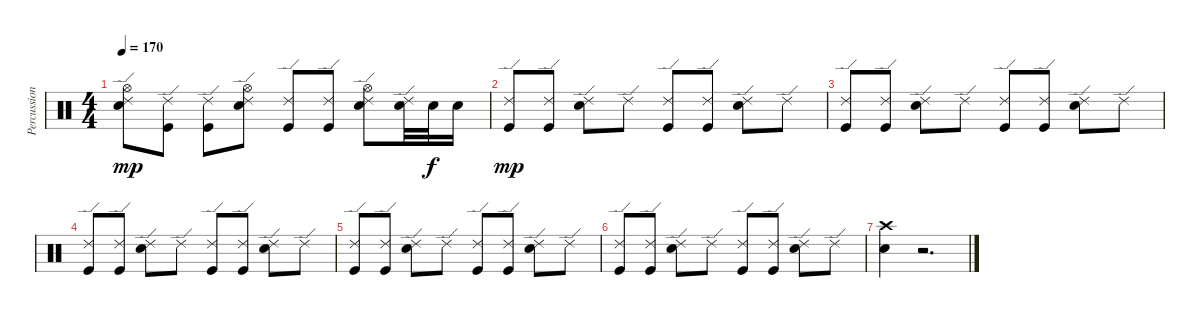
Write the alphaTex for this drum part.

\track ("Percussion" "Percussion") {instrument percussion}
\staff {score}
\articulation defaults
\ts (4 4)
\tempo 170
\clef neutral
\ks c
("Hi-Hat (open)" "Electric Snare (hit)" "Ride (edge) 2").8{dy mp} ("Kick (hit)" "Ride (edge) 2").8 ("Kick (hit)" "Ride (edge) 2").8 ("Hi-Hat (open)" "Electric Snare (hit)" "Ride (edge) 2").8 ("Kick (hit)" "Ride (edge) 2").8 ("Kick (hit)" "Ride (edge) 2").8 ("Hi-Hat (open)" "Electric Snare (hit)" "Ride (edge) 2").8 ("Electric Snare (hit)" "Ride (edge) 2").32 "Electric Snare (hit)".32{dy f} "Electric Snare (hit)".16 |
("Kick (hit)" "Ride (edge) 2").8{dy mp} ("Kick (hit)" "Ride (edge) 2").8 ("Electric Snare (hit)" "Ride (edge) 2").8 "Ride (edge) 2".8 ("Kick (hit)" "Ride (edge) 2").8 ("Kick (hit)" "Ride (edge) 2").8 ("Electric Snare (hit)" "Ride (edge) 2").8 "Ride (edge) 2".8 |
("Kick (hit)" "Ride (edge) 2").8 ("Kick (hit)" "Ride (edge) 2").8 ("Electric Snare (hit)" "Ride (edge) 2").8 "Ride (edge) 2".8 ("Kick (hit)" "Ride (edge) 2").8 ("Kick (hit)" "Ride (edge) 2").8 ("Electric Snare (hit)" "Ride (edge) 2").8 "Ride (edge) 2".8 |
("Kick (hit)" "Ride (edge) 2").8 ("Kick (hit)" "Ride (edge) 2").8 ("Electric Snare (hit)" "Ride (edge) 2").8 "Ride (edge) 2".8 ("Kick (hit)" "Ride (edge) 2").8 ("Kick (hit)" "Ride (edge) 2").8 ("Electric Snare (hit)" "Ride (edge) 2").8 "Ride (edge) 2".8 |
("Kick (hit)" "Ride (edge) 2").8 ("Kick (hit)" "Ride (edge) 2").8 ("Electric Snare (hit)" "Ride (edge) 2").8 "Ride (edge) 2".8 ("Kick (hit)" "Ride (edge) 2").8 ("Kick (hit)" "Ride (edge) 2").8 ("Electric Snare (hit)" "Ride (edge) 2").8 "Ride (edge) 2".8 |
("Kick (hit)" "Ride (edge) 2").8 ("Kick (hit)" "Ride (edge) 2").8 ("Electric Snare (hit)" "Ride (edge) 2").8 "Ride (edge) 2".8 ("Kick (hit)" "Ride (edge) 2").8 ("Kick (hit)" "Ride (edge) 2").8 ("Electric Snare (hit)" "Ride (edge) 2").8 "Ride (edge) 2".8 |
("Crash high (hit)" "Electric Snare (hit)").4 r.2{d}
